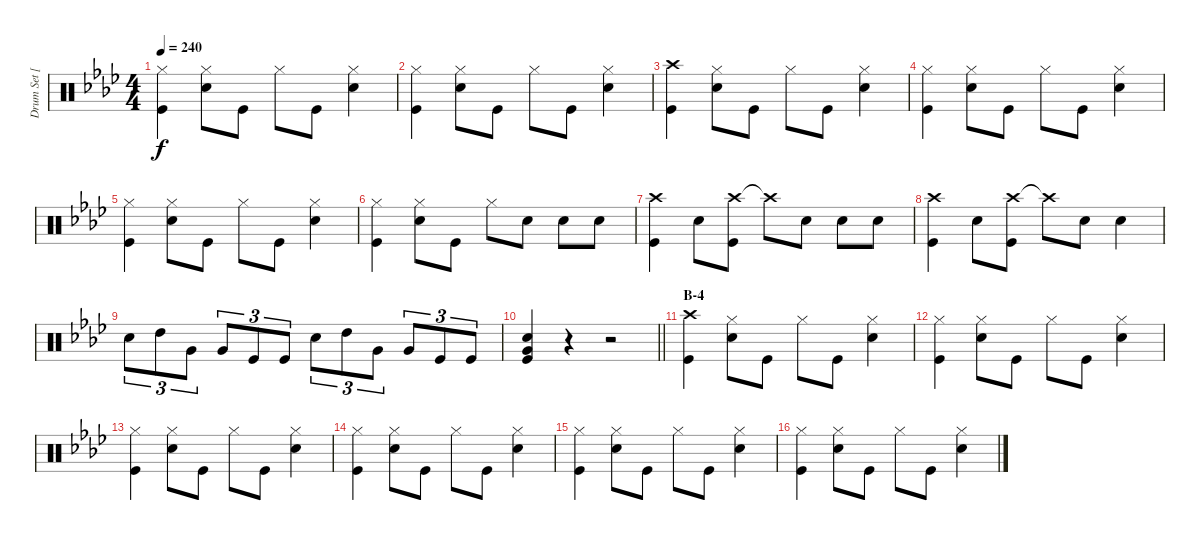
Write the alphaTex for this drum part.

\track ("Drum Set [Ritsu]" "Drum Set [") {instrument percussion}
\staff {score}
\articulation defaults
\ts (4 4)
\tempo 240
\clef neutral
\ks ab
("Hi-Hat (closed)" "Kick (hit)").4{dy f} ("Hi-Hat (closed)" "Snare (hit) 2").8 "Kick (hit)".8 "Hi-Hat (closed)".8 "Kick (hit)".8 ("Hi-Hat (closed)" "Snare (hit) 2").4 |
("Hi-Hat (closed)" "Kick (hit)").4 ("Hi-Hat (closed)" "Snare (hit) 2").8 "Kick (hit)".8 "Hi-Hat (closed)".8 "Kick (hit)".8 ("Hi-Hat (closed)" "Snare (hit) 2").4 |
("Crash high (hit)" "Kick (hit)").4 ("Hi-Hat (closed)" "Snare (hit) 2").8 "Kick (hit)".8 "Hi-Hat (closed)".8 "Kick (hit)".8 ("Hi-Hat (closed)" "Snare (hit) 2").4 |
("Hi-Hat (closed)" "Kick (hit)").4 ("Hi-Hat (closed)" "Snare (hit) 2").8 "Kick (hit)".8 "Hi-Hat (closed)".8 "Kick (hit)".8 ("Hi-Hat (closed)" "Snare (hit) 2").4 |
("Hi-Hat (closed)" "Kick (hit)").4 ("Hi-Hat (closed)" "Snare (hit) 2").8 "Kick (hit)".8 "Hi-Hat (closed)".8 "Kick (hit)".8 ("Hi-Hat (closed)" "Snare (hit) 2").4 |
("Hi-Hat (closed)" "Kick (hit)").4 ("Hi-Hat (closed)" "Snare (hit) 2").8 "Kick (hit)".8 "Hi-Hat (closed)".8 "Snare (hit) 2".8 "Snare (hit) 2".8 "Snare (hit) 2".8 |
("Crash high (hit)" "Kick (hit)").4 "Snare (hit) 2".8 ("Crash high (hit)" "Kick (hit)").8 "Crash high (hit)"{t}.8 "Snare (hit) 2".8 "Snare (hit) 2".8 "Snare (hit) 2".8 |
("Crash high (hit)" "Kick (hit)").4 "Snare (hit) 2".8 ("Crash high (hit)" "Kick (hit)").8 "Crash high (hit)"{t}.8 "Snare (hit) 2".8 "Snare (hit) 2".4 |
"Snare (hit) 2".8{tu (3 2)} "High Tom (hit)".8{tu (3 2)} "Very Low Tom (hit)".8{tu (3 2)} "Very Low Tom (hit)".8{tu (3 2)} "Kick (hit)".8{tu (3 2)} "Kick (hit)".8{tu (3 2)} "Snare (hit) 2".8{tu (3 2)} "High Tom (hit)".8{tu (3 2)} "Very Low Tom (hit)".8{tu (3 2)} "Very Low Tom (hit)".8{tu (3 2)} "Kick (hit)".8{tu (3 2)} "Kick (hit)".8{tu (3 2)} |
\barLineRight lightlight
("Very Low Tom (hit)" "Snare (hit) 2" "Kick (hit)").4 r.4 r.2 |
\section ("" "B-4")
("Crash high (hit)" "Kick (hit)").4 ("Hi-Hat (closed)" "Snare (hit) 2").8 "Kick (hit)".8 "Hi-Hat (closed)".8 "Kick (hit)".8 ("Hi-Hat (closed)" "Snare (hit) 2").4 |
("Hi-Hat (closed)" "Kick (hit)").4 ("Hi-Hat (closed)" "Snare (hit) 2").8 "Kick (hit)".8 "Hi-Hat (closed)".8 "Kick (hit)".8 ("Hi-Hat (closed)" "Snare (hit) 2").4 |
("Hi-Hat (closed)" "Kick (hit)").4 ("Hi-Hat (closed)" "Snare (hit) 2").8 "Kick (hit)".8 "Hi-Hat (closed)".8 "Kick (hit)".8 ("Hi-Hat (closed)" "Snare (hit) 2").4 |
("Hi-Hat (closed)" "Kick (hit)").4 ("Hi-Hat (closed)" "Snare (hit) 2").8 "Kick (hit)".8 "Hi-Hat (closed)".8 "Kick (hit)".8 ("Hi-Hat (closed)" "Snare (hit) 2").4 |
("Hi-Hat (closed)" "Kick (hit)").4 ("Hi-Hat (closed)" "Snare (hit) 2").8 "Kick (hit)".8 "Hi-Hat (closed)".8 "Kick (hit)".8 ("Hi-Hat (closed)" "Snare (hit) 2").4 |
("Hi-Hat (closed)" "Kick (hit)").4 ("Hi-Hat (closed)" "Snare (hit) 2").8 "Kick (hit)".8 "Hi-Hat (closed)".8 "Kick (hit)".8 ("Hi-Hat (closed)" "Snare (hit) 2").4
